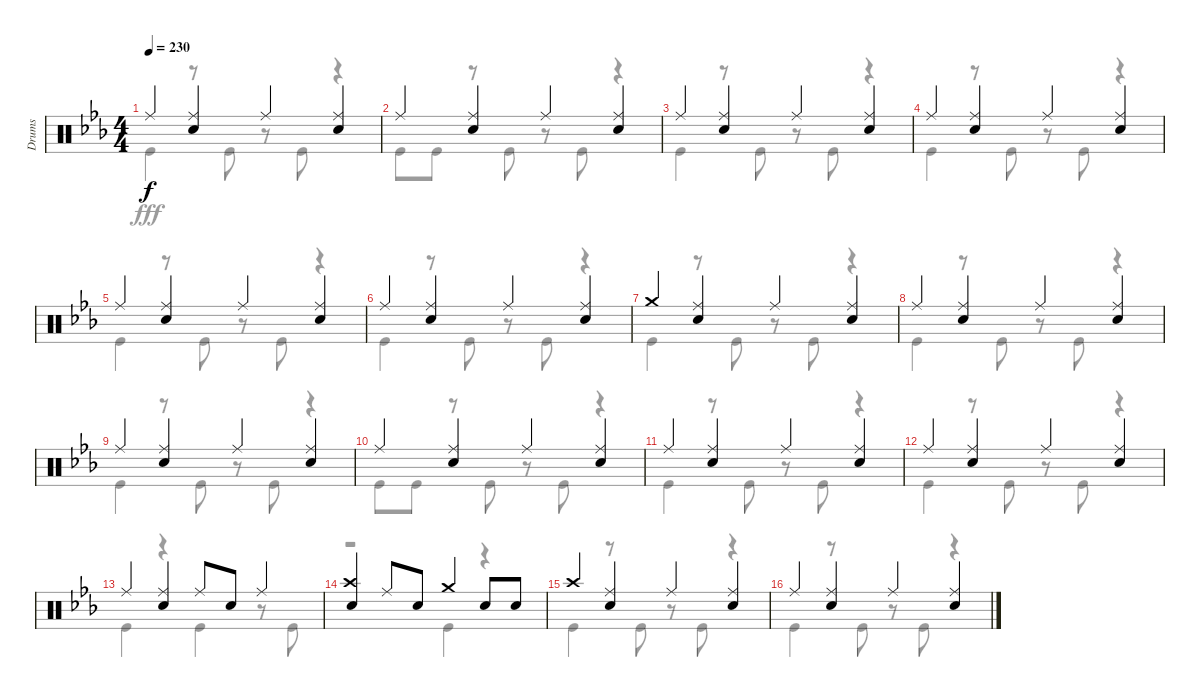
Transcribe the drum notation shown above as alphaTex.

\track ("Drums" "Drums") {instrument percussion}
\staff {score}
\articulation defaults
\voice
\ts (4 4)
\tempo 230
\clef neutral
\ks eb "Ride (middle)".4{dy f}
("Ride (middle)" "Snare (hit) 2").4 "Ride (middle)".4 ("Ride (middle)" "Snare (hit) 2").4 |
"Ride (middle)".4 ("Ride (middle)" "Snare (hit) 2").4 "Ride (middle)".4 ("Ride (middle)" "Snare (hit) 2").4 |
"Ride (middle)".4 ("Ride (middle)" "Snare (hit) 2").4 "Ride (middle)".4 ("Ride (middle)" "Snare (hit) 2").4 |
"Ride (middle)".4 ("Ride (middle)" "Snare (hit) 2").4 "Ride (middle)".4 ("Ride (middle)" "Snare (hit) 2").4 |
"Ride (middle)".4 ("Ride (middle)" "Snare (hit) 2").4 "Ride (middle)".4 ("Ride (middle)" "Snare (hit) 2").4 |
"Ride (middle)".4 ("Ride (middle)" "Snare (hit) 2").4 "Ride (middle)".4 ("Ride (middle)" "Snare (hit) 2").4 |
"Crash medium (hit)".4 ("Ride (middle)" "Snare (hit) 2").4 "Ride (middle)".4 ("Ride (middle)" "Snare (hit) 2").4 |
"Ride (middle)".4 ("Ride (middle)" "Snare (hit) 2").4 "Ride (middle)".4 ("Ride (middle)" "Snare (hit) 2").4 |
"Ride (middle)".4 ("Ride (middle)" "Snare (hit) 2").4 "Ride (middle)".4 ("Ride (middle)" "Snare (hit) 2").4 |
"Ride (middle)".4 ("Ride (middle)" "Snare (hit) 2").4 "Ride (middle)".4 ("Ride (middle)" "Snare (hit) 2").4 |
"Ride (middle)".4 ("Ride (middle)" "Snare (hit) 2").4 "Ride (middle)".4 ("Ride (middle)" "Snare (hit) 2").4 |
"Ride (middle)".4 ("Ride (middle)" "Snare (hit) 2").4 "Ride (middle)".4 ("Ride (middle)" "Snare (hit) 2").4 |
"Ride (middle)".4 ("Ride (middle)" "Snare (hit) 2").4 "Ride (middle)".8 "Snare (hit) 2".8 "Ride (middle)".4 |
("Crash high (hit)" "Snare (hit) 2").4 "Ride (middle)".8 "Snare (hit) 2".8 "Crash medium (hit)".4 "Snare (hit) 2".8 "Snare (hit) 2".8 |
"Crash high (hit)".4 ("Ride (middle)" "Snare (hit) 2").4 "Ride (middle)".4 ("Ride (middle)" "Snare (hit) 2").4 |
"Ride (middle)".4 ("Ride (middle)" "Snare (hit) 2").4 "Ride (middle)".4 ("Ride (middle)" "Snare (hit) 2").4
\voice
\clef neutral
\ottava regular
\simile none
\ks eb "Kick (hit)".4{dy fff}
r.8 "Kick (hit)".8 r.8 "Kick (hit)".8 r.4 |
"Kick (hit)".8 "Kick (hit)".8 r.8 "Kick (hit)".8 r.8 "Kick (hit)".8 r.4 |
"Kick (hit)".4 r.8 "Kick (hit)".8 r.8 "Kick (hit)".8 r.4 |
"Kick (hit)".4 r.8 "Kick (hit)".8 r.8 "Kick (hit)".8 r.4 |
"Kick (hit)".4 r.8 "Kick (hit)".8 r.8 "Kick (hit)".8 r.4 |
"Kick (hit)".4 r.8 "Kick (hit)".8 r.8 "Kick (hit)".8 r.4 |
"Kick (hit)".4 r.8 "Kick (hit)".8 r.8 "Kick (hit)".8 r.4 |
"Kick (hit)".4 r.8 "Kick (hit)".8 r.8 "Kick (hit)".8 r.4 |
"Kick (hit)".4 r.8 "Kick (hit)".8 r.8 "Kick (hit)".8 r.4 |
"Kick (hit)".8 "Kick (hit)".8 r.8 "Kick (hit)".8 r.8 "Kick (hit)".8 r.4 |
"Kick (hit)".4 r.8 "Kick (hit)".8 r.8 "Kick (hit)".8 r.4 |
"Kick (hit)".4 r.8 "Kick (hit)".8 r.8 "Kick (hit)".8 r.4 |
"Kick (hit)".4 r.4 "Kick (hit)".4 r.8 "Kick (hit)".8 |
r.2 "Kick (hit)".4 r.4 |
"Kick (hit)".4 r.8 "Kick (hit)".8 r.8 "Kick (hit)".8 r.4 |
"Kick (hit)".4 r.8 "Kick (hit)".8 r.8 "Kick (hit)".8 r.4
